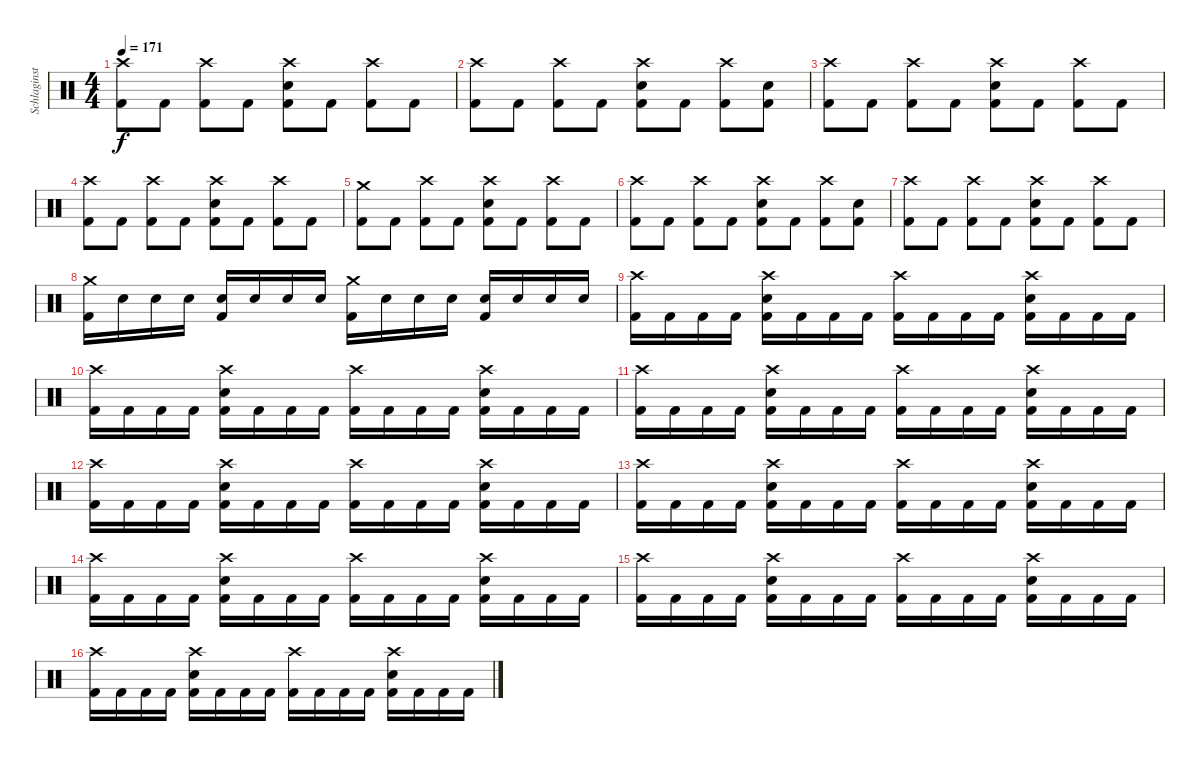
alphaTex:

\track ("Schlaginstrumente - Auswahl" "Schlaginst") {instrument percussion}
\staff {score}
\articulation defaults
\ts (4 4)
\tempo 171
\clef neutral
\ks c
("Crash high (hit)" "Kick (hit) 2").8{dy f} "Kick (hit) 2".8 ("Crash high (hit)" "Kick (hit) 2").8 "Kick (hit) 2".8 ("Crash high (hit)" "Snare (hit) 2" "Kick (hit) 2").8 "Kick (hit) 2".8 ("Crash high (hit)" "Kick (hit) 2").8 "Kick (hit) 2".8 |
("Crash high (hit)" "Kick (hit) 2").8 "Kick (hit) 2".8 ("Crash high (hit)" "Kick (hit) 2").8 "Kick (hit) 2".8 ("Crash high (hit)" "Snare (hit) 2" "Kick (hit) 2").8 "Kick (hit) 2".8 ("Crash high (hit)" "Kick (hit) 2").8 ("Snare (hit) 2" "Kick (hit) 2").8 |
("Crash high (hit)" "Kick (hit) 2").8 "Kick (hit) 2".8 ("Crash high (hit)" "Kick (hit) 2").8 "Kick (hit) 2".8 ("Crash high (hit)" "Snare (hit) 2" "Kick (hit) 2").8 "Kick (hit) 2".8 ("Crash high (hit)" "Kick (hit) 2").8 "Kick (hit) 2".8 |
("Crash high (hit)" "Kick (hit) 2").8 "Kick (hit) 2".8 ("Crash high (hit)" "Kick (hit) 2").8 "Kick (hit) 2".8 ("Crash high (hit)" "Snare (hit) 2" "Kick (hit) 2").8 "Kick (hit) 2".8 ("Crash high (hit)" "Kick (hit) 2").8 "Kick (hit) 2".8 |
("Crash medium (hit)" "Kick (hit) 2").8 "Kick (hit) 2".8 ("Crash high (hit)" "Kick (hit) 2").8 "Kick (hit) 2".8 ("Crash high (hit)" "Snare (hit) 2" "Kick (hit) 2").8 "Kick (hit) 2".8 ("Crash high (hit)" "Kick (hit) 2").8 "Kick (hit) 2".8 |
("Crash high (hit)" "Kick (hit) 2").8 "Kick (hit) 2".8 ("Crash high (hit)" "Kick (hit) 2").8 "Kick (hit) 2".8 ("Crash high (hit)" "Snare (hit) 2" "Kick (hit) 2").8 "Kick (hit) 2".8 ("Crash high (hit)" "Kick (hit) 2").8 ("Snare (hit) 2" "Kick (hit) 2").8 |
("Crash high (hit)" "Kick (hit) 2").8 "Kick (hit) 2".8 ("Crash high (hit)" "Kick (hit) 2").8 "Kick (hit) 2".8 ("Crash high (hit)" "Snare (hit) 2" "Kick (hit) 2").8 "Kick (hit) 2".8 ("Crash high (hit)" "Kick (hit) 2").8 "Kick (hit) 2".8 |
("Crash medium (hit)" "Kick (hit) 2").16 "Snare (hit) 2".16 "Snare (hit) 2".16 "Snare (hit) 2".16 ("Snare (hit) 2" "Kick (hit) 2").16 "Snare (hit) 2".16 "Snare (hit) 2".16 "Snare (hit) 2".16 ("Crash medium (hit)" "Kick (hit) 2").16 "Snare (hit) 2".16 "Snare (hit) 2".16 "Snare (hit) 2".16 ("Snare (hit) 2" "Kick (hit) 2").16 "Snare (hit) 2".16 "Snare (hit) 2".16 "Snare (hit) 2".16 |
("Crash high (hit)" "Kick (hit) 2").16 "Kick (hit) 2".16 "Kick (hit) 2".16 "Kick (hit) 2".16 ("Crash high (hit)" "Snare (hit) 2" "Kick (hit) 2").16 "Kick (hit) 2".16 "Kick (hit) 2".16 "Kick (hit) 2".16 ("Crash high (hit)" "Kick (hit) 2").16 "Kick (hit) 2".16 "Kick (hit) 2".16 "Kick (hit) 2".16 ("Crash high (hit)" "Snare (hit) 2" "Kick (hit) 2").16 "Kick (hit) 2".16 "Kick (hit) 2".16 "Kick (hit) 2".16 |
("Crash high (hit)" "Kick (hit) 2").16 "Kick (hit) 2".16 "Kick (hit) 2".16 "Kick (hit) 2".16 ("Crash high (hit)" "Snare (hit) 2" "Kick (hit) 2").16 "Kick (hit) 2".16 "Kick (hit) 2".16 "Kick (hit) 2".16 ("Crash high (hit)" "Kick (hit) 2").16 "Kick (hit) 2".16 "Kick (hit) 2".16 "Kick (hit) 2".16 ("Crash high (hit)" "Snare (hit) 2" "Kick (hit) 2").16 "Kick (hit) 2".16 "Kick (hit) 2".16 "Kick (hit) 2".16 |
("Crash high (hit)" "Kick (hit) 2").16 "Kick (hit) 2".16 "Kick (hit) 2".16 "Kick (hit) 2".16 ("Crash high (hit)" "Snare (hit) 2" "Kick (hit) 2").16 "Kick (hit) 2".16 "Kick (hit) 2".16 "Kick (hit) 2".16 ("Crash high (hit)" "Kick (hit) 2").16 "Kick (hit) 2".16 "Kick (hit) 2".16 "Kick (hit) 2".16 ("Crash high (hit)" "Snare (hit) 2" "Kick (hit) 2").16 "Kick (hit) 2".16 "Kick (hit) 2".16 "Kick (hit) 2".16 |
("Crash high (hit)" "Kick (hit) 2").16 "Kick (hit) 2".16 "Kick (hit) 2".16 "Kick (hit) 2".16 ("Crash high (hit)" "Snare (hit) 2" "Kick (hit) 2").16 "Kick (hit) 2".16 "Kick (hit) 2".16 "Kick (hit) 2".16 ("Crash high (hit)" "Kick (hit) 2").16 "Kick (hit) 2".16 "Kick (hit) 2".16 "Kick (hit) 2".16 ("Crash high (hit)" "Snare (hit) 2" "Kick (hit) 2").16 "Kick (hit) 2".16 "Kick (hit) 2".16 "Kick (hit) 2".16 |
("Crash high (hit)" "Kick (hit) 2").16 "Kick (hit) 2".16 "Kick (hit) 2".16 "Kick (hit) 2".16 ("Crash high (hit)" "Snare (hit) 2" "Kick (hit) 2").16 "Kick (hit) 2".16 "Kick (hit) 2".16 "Kick (hit) 2".16 ("Crash high (hit)" "Kick (hit) 2").16 "Kick (hit) 2".16 "Kick (hit) 2".16 "Kick (hit) 2".16 ("Crash high (hit)" "Snare (hit) 2" "Kick (hit) 2").16 "Kick (hit) 2".16 "Kick (hit) 2".16 "Kick (hit) 2".16 |
("Crash high (hit)" "Kick (hit) 2").16 "Kick (hit) 2".16 "Kick (hit) 2".16 "Kick (hit) 2".16 ("Crash high (hit)" "Snare (hit) 2" "Kick (hit) 2").16 "Kick (hit) 2".16 "Kick (hit) 2".16 "Kick (hit) 2".16 ("Crash high (hit)" "Kick (hit) 2").16 "Kick (hit) 2".16 "Kick (hit) 2".16 "Kick (hit) 2".16 ("Crash high (hit)" "Snare (hit) 2" "Kick (hit) 2").16 "Kick (hit) 2".16 "Kick (hit) 2".16 "Kick (hit) 2".16 |
("Crash high (hit)" "Kick (hit) 2").16 "Kick (hit) 2".16 "Kick (hit) 2".16 "Kick (hit) 2".16 ("Crash high (hit)" "Snare (hit) 2" "Kick (hit) 2").16 "Kick (hit) 2".16 "Kick (hit) 2".16 "Kick (hit) 2".16 ("Crash high (hit)" "Kick (hit) 2").16 "Kick (hit) 2".16 "Kick (hit) 2".16 "Kick (hit) 2".16 ("Crash high (hit)" "Snare (hit) 2" "Kick (hit) 2").16 "Kick (hit) 2".16 "Kick (hit) 2".16 "Kick (hit) 2".16 |
("Crash high (hit)" "Kick (hit) 2").16 "Kick (hit) 2".16 "Kick (hit) 2".16 "Kick (hit) 2".16 ("Crash high (hit)" "Snare (hit) 2" "Kick (hit) 2").16 "Kick (hit) 2".16 "Kick (hit) 2".16 "Kick (hit) 2".16 ("Crash high (hit)" "Kick (hit) 2").16 "Kick (hit) 2".16 "Kick (hit) 2".16 "Kick (hit) 2".16 ("Crash high (hit)" "Snare (hit) 2" "Kick (hit) 2").16 "Kick (hit) 2".16 "Kick (hit) 2".16 "Kick (hit) 2".16
